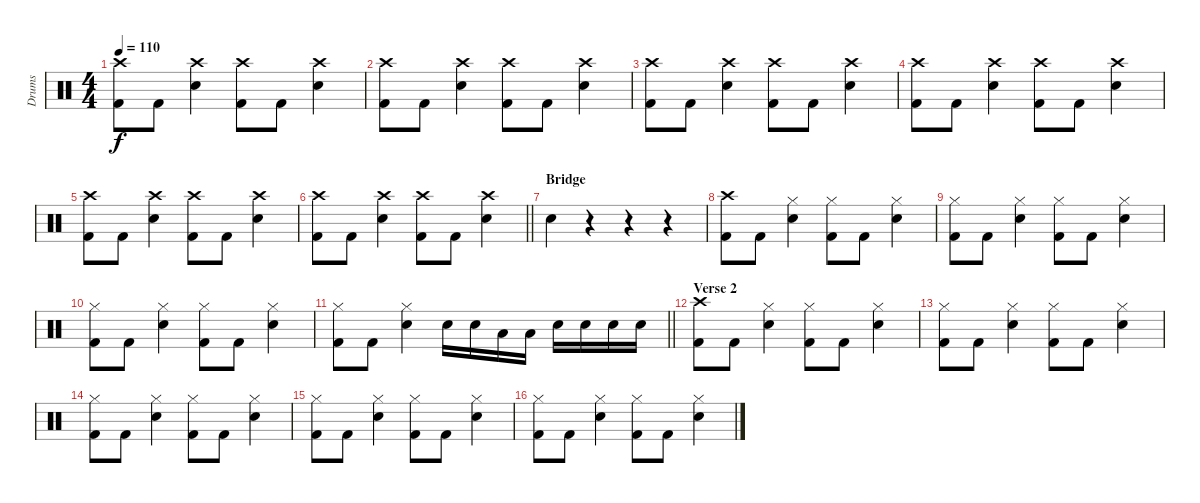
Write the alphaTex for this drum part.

\track ("Drums" "Drums") {instrument percussion}
\staff {score}
\articulation defaults
\ts (4 4)
\tempo 110
\clef neutral
\ks c
("Crash high (hit)" "Kick (hit) 2").8{dy f} "Kick (hit) 2".8 ("Crash high (hit)" "Snare (hit) 2").4 ("Crash high (hit)" "Kick (hit) 2").8 "Kick (hit) 2".8 ("Crash high (hit)" "Snare (hit) 2").4 |
("Crash high (hit)" "Kick (hit) 2").8 "Kick (hit) 2".8 ("Crash high (hit)" "Snare (hit) 2").4 ("Crash high (hit)" "Kick (hit) 2").8 "Kick (hit) 2".8 ("Crash high (hit)" "Snare (hit) 2").4 |
("Crash high (hit)" "Kick (hit) 2").8 "Kick (hit) 2".8 ("Crash high (hit)" "Snare (hit) 2").4 ("Crash high (hit)" "Kick (hit) 2").8 "Kick (hit) 2".8 ("Crash high (hit)" "Snare (hit) 2").4 |
("Crash high (hit)" "Kick (hit) 2").8 "Kick (hit) 2".8 ("Crash high (hit)" "Snare (hit) 2").4 ("Crash high (hit)" "Kick (hit) 2").8 "Kick (hit) 2".8 ("Crash high (hit)" "Snare (hit) 2").4 |
("Crash high (hit)" "Kick (hit) 2").8 "Kick (hit) 2".8 ("Crash high (hit)" "Snare (hit) 2").4 ("Crash high (hit)" "Kick (hit) 2").8 "Kick (hit) 2".8 ("Crash high (hit)" "Snare (hit) 2").4 |
\barLineRight lightlight
("Crash high (hit)" "Kick (hit) 2").8 "Kick (hit) 2".8 ("Crash high (hit)" "Snare (hit) 2").4 ("Crash high (hit)" "Kick (hit) 2").8 "Kick (hit) 2".8 ("Crash high (hit)" "Snare (hit) 2").4 |
\section ("" "Bridge")
"Snare (hit) 2".4 r.4 r.4 r.4 |
("Crash high (hit)" "Kick (hit) 2").8 "Kick (hit) 2".8 ("Hi-Hat (closed)" "Snare (hit) 2").4 ("Hi-Hat (closed)" "Kick (hit) 2").8 "Kick (hit) 2".8 ("Hi-Hat (closed)" "Snare (hit) 2").4 |
("Hi-Hat (closed)" "Kick (hit) 2").8 "Kick (hit) 2".8 ("Hi-Hat (closed)" "Snare (hit) 2").4 ("Hi-Hat (closed)" "Kick (hit) 2").8 "Kick (hit) 2".8 ("Hi-Hat (closed)" "Snare (hit) 2").4 |
("Hi-Hat (closed)" "Kick (hit) 2").8 "Kick (hit) 2".8 ("Hi-Hat (closed)" "Snare (hit) 2").4 ("Hi-Hat (closed)" "Kick (hit) 2").8 "Kick (hit) 2".8 ("Hi-Hat (closed)" "Snare (hit) 2").4 |
\barLineRight lightlight
("Hi-Hat (closed)" "Kick (hit) 2").8 "Kick (hit) 2".8 ("Hi-Hat (closed)" "Snare (hit) 2").4 "Snare (hit) 2".16 "Snare (hit) 2".16 "Low Floor Tom (hit)".16 "Low Floor Tom (hit)".16 "Snare (hit) 2".16 "Snare (hit) 2".16 "Snare (hit) 2".16 "Snare (hit) 2".16 |
\section ("" "Verse 2")
("Crash high (hit)" "Kick (hit) 2").8 "Kick (hit) 2".8 ("Hi-Hat (closed)" "Snare (hit) 2").4 ("Hi-Hat (closed)" "Kick (hit) 2").8 "Kick (hit) 2".8 ("Hi-Hat (closed)" "Snare (hit) 2").4 |
("Hi-Hat (closed)" "Kick (hit) 2").8 "Kick (hit) 2".8 ("Hi-Hat (closed)" "Snare (hit) 2").4 ("Hi-Hat (closed)" "Kick (hit) 2").8 "Kick (hit) 2".8 ("Hi-Hat (closed)" "Snare (hit) 2").4 |
("Hi-Hat (closed)" "Kick (hit) 2").8 "Kick (hit) 2".8 ("Hi-Hat (closed)" "Snare (hit) 2").4 ("Hi-Hat (closed)" "Kick (hit) 2").8 "Kick (hit) 2".8 ("Hi-Hat (closed)" "Snare (hit) 2").4 |
("Hi-Hat (closed)" "Kick (hit) 2").8 "Kick (hit) 2".8 ("Hi-Hat (closed)" "Snare (hit) 2").4 ("Hi-Hat (closed)" "Kick (hit) 2").8 "Kick (hit) 2".8 ("Hi-Hat (closed)" "Snare (hit) 2").4 |
("Hi-Hat (closed)" "Kick (hit) 2").8 "Kick (hit) 2".8 ("Hi-Hat (closed)" "Snare (hit) 2").4 ("Hi-Hat (closed)" "Kick (hit) 2").8 "Kick (hit) 2".8 ("Hi-Hat (closed)" "Snare (hit) 2").4
